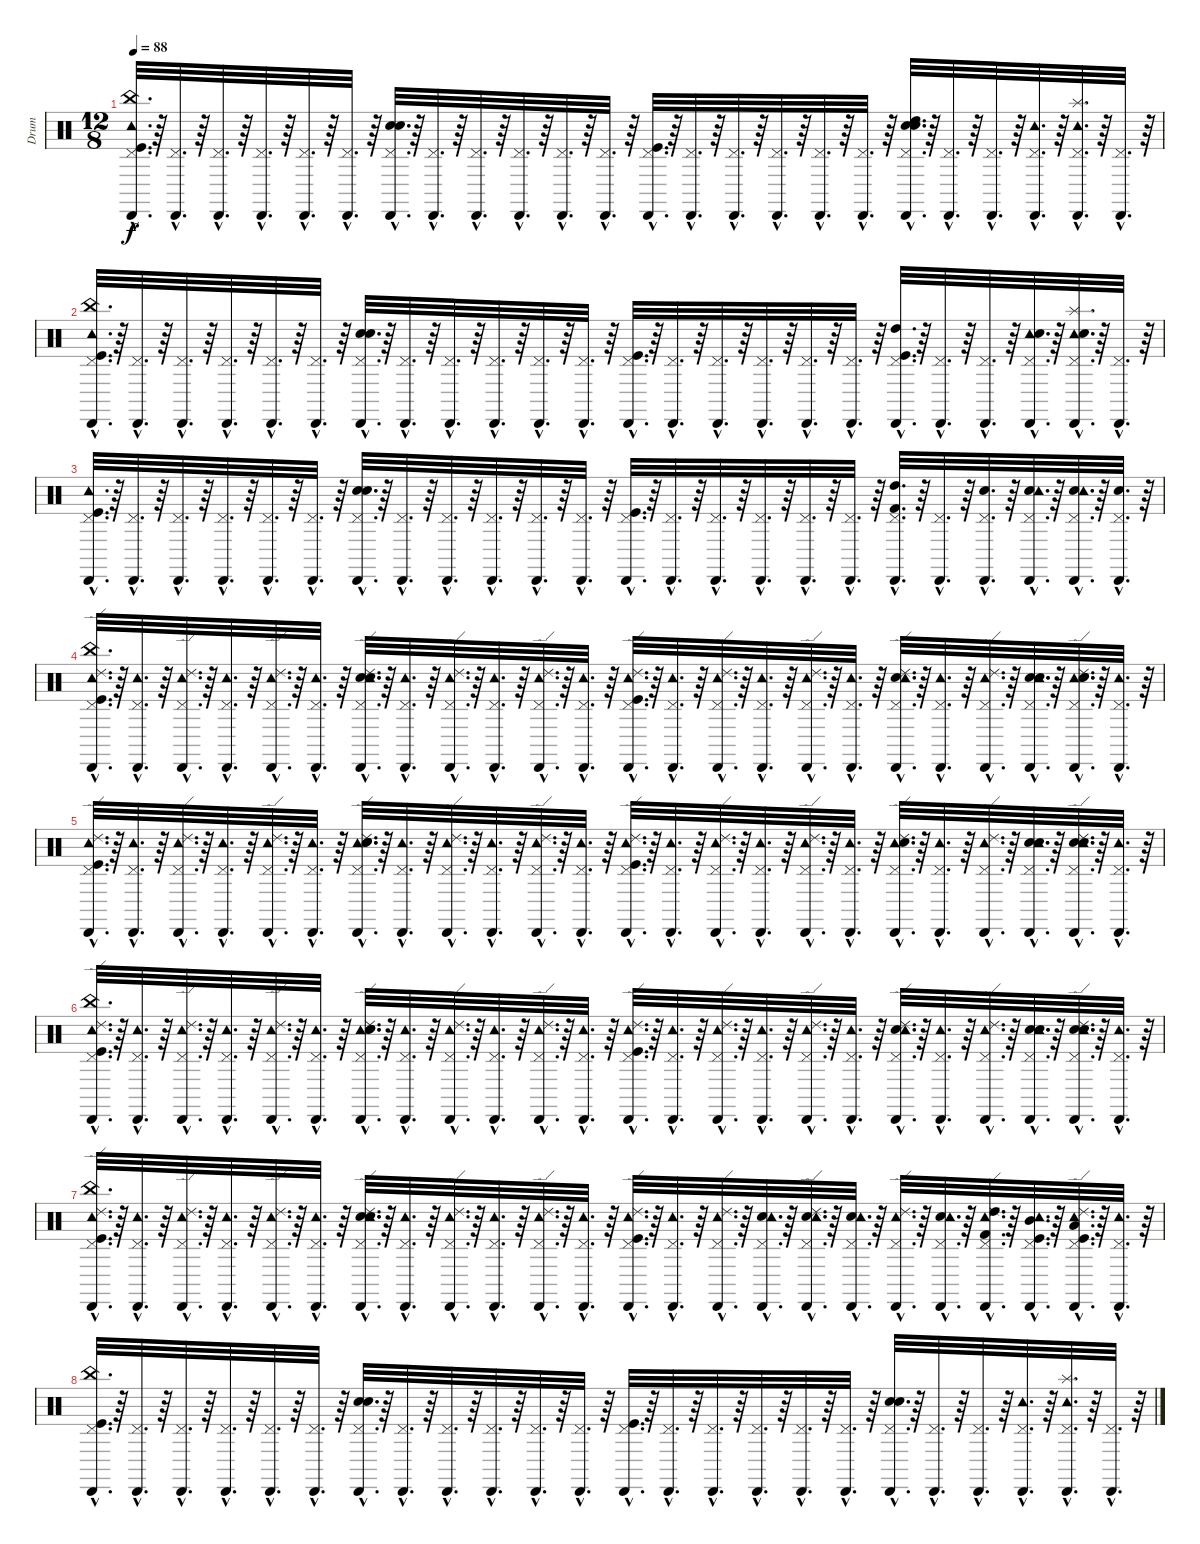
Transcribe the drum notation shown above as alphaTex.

\track ("Drum" "Drum") {instrument percussion}
\staff {score}
\articulation defaults
\ts (12 8)
\tempo 88
\clef neutral
\ks c
("Pedal Hi-Hat (hit)"{hac} "Kick (hit)"{hac} "Cabasa (hit)"{hac} "Tambourine (hit)"{hac} "China (hit)"{hac}).32{d dy f} r.64 ("Cabasa (hit)"{hac} "Pedal Hi-Hat (hit)"{hac}).32{d} r.64 ("Cabasa (hit)"{hac} "Pedal Hi-Hat (hit)"{hac}).32{d} r.64 ("Cabasa (hit)"{hac} "Pedal Hi-Hat (hit)"{hac}).32{d} r.64 ("Pedal Hi-Hat (hit)"{hac} "Cabasa (hit)"{hac}).32{d} r.64 ("Pedal Hi-Hat (hit)"{hac} "Cabasa (hit)"{hac}).32{d} r.64 ("Snare (hit) 2"{hac} "Cabasa (hit)"{hac} "Electric Snare (hit)"{hac} "Pedal Hi-Hat (hit)"{hac}).32{d} r.64 ("Cabasa (hit)"{hac} "Pedal Hi-Hat (hit)"{hac}).32{d} r.64 ("Pedal Hi-Hat (hit)"{hac} "Cabasa (hit)"{hac}).32{d} r.64 ("Pedal Hi-Hat (hit)"{hac} "Cabasa (hit)"{hac}).32{d} r.64 ("Cabasa (hit)"{hac} "Pedal Hi-Hat (hit)"{hac}).32{d} r.64 ("Cabasa (hit)"{hac} "Pedal Hi-Hat (hit)"{hac}).32{d} r.64 ("Kick (hit)"{hac} "Cabasa (hit)"{hac} "Pedal Hi-Hat (hit)"{hac}).32{d} r.64 ("Cabasa (hit)"{hac} "Pedal Hi-Hat (hit)"{hac}).32{d} r.64 ("Pedal Hi-Hat (hit)"{hac} "Cabasa (hit)"{hac}).32{d} r.64 ("Cabasa (hit)"{hac} "Pedal Hi-Hat (hit)"{hac}).32{d} r.64 ("Cabasa (hit)"{hac} "Pedal Hi-Hat (hit)"{hac}).32{d} r.64 ("Cabasa (hit)"{hac} "Pedal Hi-Hat (hit)"{hac}).32{d} r.64 ("Electric Snare (hit)"{hac} "Snare (hit) 2"{hac} "High Tom (hit)"{hac} "Pedal Hi-Hat (hit)"{hac} "Cabasa (hit)"{hac}).32{d} r.64 ("Pedal Hi-Hat (hit)"{hac} "Cabasa (hit)"{hac}).32{d} r.64 ("Cabasa (hit)"{hac} "Pedal Hi-Hat (hit)"{hac}).32{d} r.64 ("Cabasa (hit)"{hac} "Pedal Hi-Hat (hit)"{hac} "Tambourine (hit)"{hac}).32{d} r.64 ("Splash (hit)"{hac} "Tambourine (hit)"{hac} "Cabasa (hit)"{hac} "Pedal Hi-Hat (hit)"{hac}).32{d} r.64 ("Cabasa (hit)"{hac} "Pedal Hi-Hat (hit)"{hac}).32{d} r.64 |
("China (hit)"{hac} "Cabasa (hit)"{hac} "Kick (hit)"{hac} "Pedal Hi-Hat (hit)"{hac} "Tambourine (hit)"{hac}).32{d} r.64 ("Cabasa (hit)"{hac} "Pedal Hi-Hat (hit)"{hac}).32{d} r.64 ("Pedal Hi-Hat (hit)"{hac} "Cabasa (hit)"{hac}).32{d} r.64 ("Pedal Hi-Hat (hit)"{hac} "Cabasa (hit)"{hac}).32{d} r.64 ("Cabasa (hit)"{hac} "Pedal Hi-Hat (hit)"{hac}).32{d} r.64 ("Pedal Hi-Hat (hit)"{hac} "Cabasa (hit)"{hac}).32{d} r.64 ("Pedal Hi-Hat (hit)"{hac} "Snare (hit) 2"{hac} "Cabasa (hit)"{hac} "Electric Snare (hit)"{hac}).32{d} r.64 ("Cabasa (hit)"{hac} "Pedal Hi-Hat (hit)"{hac}).32{d} r.64 ("Cabasa (hit)"{hac} "Pedal Hi-Hat (hit)"{hac}).32{d} r.64 ("Pedal Hi-Hat (hit)"{hac} "Cabasa (hit)"{hac}).32{d} r.64 ("Cabasa (hit)"{hac} "Pedal Hi-Hat (hit)"{hac}).32{d} r.64 ("Cabasa (hit)"{hac} "Pedal Hi-Hat (hit)"{hac}).32{d} r.64 ("Cabasa (hit)"{hac} "Kick (hit)"{hac} "Pedal Hi-Hat (hit)"{hac}).32{d} r.64 ("Cabasa (hit)"{hac} "Pedal Hi-Hat (hit)"{hac}).32{d} r.64 ("Pedal Hi-Hat (hit)"{hac} "Cabasa (hit)"{hac}).32{d} r.64 ("Pedal Hi-Hat (hit)"{hac} "Cabasa (hit)"{hac}).32{d} r.64 ("Cabasa (hit)"{hac} "Pedal Hi-Hat (hit)"{hac}).32{d} r.64 ("Pedal Hi-Hat (hit)"{hac} "Cabasa (hit)"{hac}).32{d} r.64 ("High Tom (hit)"{hac} "Pedal Hi-Hat (hit)"{hac} "Kick (hit)"{hac} "Cabasa (hit)"{hac}).32{d} r.64 ("Pedal Hi-Hat (hit)"{hac} "Cabasa (hit)"{hac}).32{d} r.64 ("Pedal Hi-Hat (hit)"{hac} "Cabasa (hit)"{hac}).32{d} r.64 ("Tambourine (hit)"{hac} "Snare (hit) 2"{hac} "Pedal Hi-Hat (hit)"{hac} "Cabasa (hit)"{hac}).32{d} r.64 ("Splash (hit)"{hac} "Tambourine (hit)"{hac} "Pedal Hi-Hat (hit)"{hac} "Snare (hit) 2"{hac} "Cabasa (hit)"{hac}).32{d} r.64 ("Pedal Hi-Hat (hit)"{hac} "Cabasa (hit)"{hac}).32{d} r.64 |
("Tambourine (hit)"{hac} "Pedal Hi-Hat (hit)"{hac} "Kick (hit)"{hac} "Cabasa (hit)"{hac}).32{d} r.64 ("Cabasa (hit)"{hac} "Pedal Hi-Hat (hit)"{hac}).32{d} r.64 ("Cabasa (hit)"{hac} "Pedal Hi-Hat (hit)"{hac}).32{d} r.64 ("Cabasa (hit)"{hac} "Pedal Hi-Hat (hit)"{hac}).32{d} r.64 ("Cabasa (hit)"{hac} "Pedal Hi-Hat (hit)"{hac}).32{d} r.64 ("Pedal Hi-Hat (hit)"{hac} "Cabasa (hit)"{hac}).32{d} r.64 ("Electric Snare (hit)"{hac} "Snare (hit) 2"{hac} "Cabasa (hit)"{hac} "Pedal Hi-Hat (hit)"{hac}).32{d} r.64 ("Cabasa (hit)"{hac} "Pedal Hi-Hat (hit)"{hac}).32{d} r.64 ("Cabasa (hit)"{hac} "Pedal Hi-Hat (hit)"{hac}).32{d} r.64 ("Pedal Hi-Hat (hit)"{hac} "Cabasa (hit)"{hac}).32{d} r.64 ("Pedal Hi-Hat (hit)"{hac} "Cabasa (hit)"{hac}).32{d} r.64 ("Cabasa (hit)"{hac} "Pedal Hi-Hat (hit)"{hac}).32{d} r.64 ("Cabasa (hit)"{hac} "Kick (hit)"{hac} "Pedal Hi-Hat (hit)"{hac}).32{d} r.64 ("Cabasa (hit)"{hac} "Pedal Hi-Hat (hit)"{hac}).32{d} r.64 ("Cabasa (hit)"{hac} "Pedal Hi-Hat (hit)"{hac}).32{d} r.64 ("Pedal Hi-Hat (hit)"{hac} "Cabasa (hit)"{hac}).32{d} r.64 ("Pedal Hi-Hat (hit)"{hac} "Cabasa (hit)"{hac}).32{d} r.64 ("Pedal Hi-Hat (hit)"{hac} "Cabasa (hit)"{hac}).32{d} r.64 ("Kick (hit) 2"{hac} "High Tom (hit)"{hac} "Pedal Hi-Hat (hit)"{hac} "Cabasa (hit)"{hac}).32{d} r.64 ("Pedal Hi-Hat (hit)"{hac} "Cabasa (hit)"{hac}).32{d} r.64 ("Snare (hit) 2"{hac} "Pedal Hi-Hat (hit)"{hac} "Cabasa (hit)"{hac}).32{d} r.64 ("Snare (hit) 2"{hac} "Tambourine (hit)"{hac} "Pedal Hi-Hat (hit)"{hac} "Cabasa (hit)"{hac}).32{d} r.64 ("Snare (hit) 2"{hac} "Pedal Hi-Hat (hit)"{hac} "Cabasa (hit)"{hac} "Tambourine (hit)"{hac}).32{d} r.64 ("Snare (hit) 2"{hac} "Pedal Hi-Hat (hit)"{hac} "Cabasa (hit)"{hac}).32{d} r.64 |
("China (hit)"{hac} "Kick (hit)"{hac} "Cabasa (hit)"{hac} "Tambourine (hit)"{hac} "Pedal Hi-Hat (hit)"{hac} "Ride (edge) 2"{hac}).32{d} r.64 ("Tambourine (hit)"{hac} "Cabasa (hit)"{hac} "Pedal Hi-Hat (hit)"{hac}).32{d} r.64 ("Cabasa (hit)"{hac} "Ride (edge) 2"{hac} "Pedal Hi-Hat (hit)"{hac} "Tambourine (hit)"{hac}).32{d} r.64 ("Cabasa (hit)"{hac} "Tambourine (hit)"{hac} "Pedal Hi-Hat (hit)"{hac}).32{d} r.64 ("Pedal Hi-Hat (hit)"{hac} "Ride (edge) 2"{hac} "Cabasa (hit)"{hac} "Tambourine (hit)"{hac}).32{d} r.64 ("Tambourine (hit)"{hac} "Pedal Hi-Hat (hit)"{hac} "Cabasa (hit)"{hac}).32{d} r.64 ("Pedal Hi-Hat (hit)"{hac} "Ride (edge) 2"{hac} "Electric Snare (hit)"{hac} "Tambourine (hit)"{hac} "Snare (hit) 2"{hac} "Cabasa (hit)"{hac}).32{d} r.64 ("Tambourine (hit)"{hac} "Cabasa (hit)"{hac} "Pedal Hi-Hat (hit)"{hac}).32{d} r.64 ("Ride (edge) 2"{hac} "Pedal Hi-Hat (hit)"{hac} "Cabasa (hit)"{hac} "Tambourine (hit)"{hac}).32{d} r.64 ("Tambourine (hit)"{hac} "Cabasa (hit)"{hac} "Pedal Hi-Hat (hit)"{hac}).32{d} r.64 ("Pedal Hi-Hat (hit)"{hac} "Ride (edge) 2"{hac} "Cabasa (hit)"{hac} "Tambourine (hit)"{hac}).32{d} r.64 ("Pedal Hi-Hat (hit)"{hac} "Tambourine (hit)"{hac} "Cabasa (hit)"{hac}).32{d} r.64 ("Tambourine (hit)"{hac} "Pedal Hi-Hat (hit)"{hac} "Kick (hit)"{hac} "Ride (edge) 2"{hac} "Cabasa (hit)"{hac}).32{d} r.64 ("Tambourine (hit)"{hac} "Pedal Hi-Hat (hit)"{hac} "Cabasa (hit)"{hac}).32{d} r.64 ("Pedal Hi-Hat (hit)"{hac} "Ride (edge) 2"{hac} "Cabasa (hit)"{hac} "Tambourine (hit)"{hac}).32{d} r.64 ("Pedal Hi-Hat (hit)"{hac} "Cabasa (hit)"{hac} "Tambourine (hit)"{hac}).32{d} r.64 ("Cabasa (hit)"{hac} "Pedal Hi-Hat (hit)"{hac} "Ride (edge) 2"{hac} "Tambourine (hit)"{hac}).32{d} r.64 ("Tambourine (hit)"{hac} "Cabasa (hit)"{hac} "Pedal Hi-Hat (hit)"{hac}).32{d} r.64 ("Snare (hit) 2"{hac} "Tambourine (hit)"{hac} "Pedal Hi-Hat (hit)"{hac} "Cabasa (hit)"{hac} "Ride (edge) 2"{hac}).32{d} r.64 ("Tambourine (hit)"{hac} "Cabasa (hit)"{hac} "Pedal Hi-Hat (hit)"{hac}).32{d} r.64 ("Cabasa (hit)"{hac} "Pedal Hi-Hat (hit)"{hac} "Tambourine (hit)"{hac} "Ride (edge) 2"{hac}).32{d} r.64 ("Pedal Hi-Hat (hit)"{hac} "Cabasa (hit)"{hac} "Snare (hit) 2"{hac} "Tambourine (hit)"{hac} "Electric Snare (hit)"{hac}).32{d} r.64 ("Ride (edge) 2"{hac} "Cabasa (hit)"{hac} "Tambourine (hit)"{hac} "Snare (hit) 2"{hac} "Pedal Hi-Hat (hit)"{hac} "Electric Snare (hit)"{hac}).32{d} r.64 ("Tambourine (hit)"{hac} "Cabasa (hit)"{hac} "Pedal Hi-Hat (hit)"{hac}).32{d} r.64 |
("Ride (edge) 2"{hac} "Pedal Hi-Hat (hit)"{hac} "Tambourine (hit)"{hac} "Cabasa (hit)"{hac} "Kick (hit)"{hac}).32{d} r.64 ("Pedal Hi-Hat (hit)"{hac} "Cabasa (hit)"{hac} "Tambourine (hit)"{hac}).32{d} r.64 ("Tambourine (hit)"{hac} "Pedal Hi-Hat (hit)"{hac} "Cabasa (hit)"{hac} "Ride (edge) 2"{hac}).32{d} r.64 ("Cabasa (hit)"{hac} "Pedal Hi-Hat (hit)"{hac} "Tambourine (hit)"{hac}).32{d} r.64 ("Tambourine (hit)"{hac} "Cabasa (hit)"{hac} "Pedal Hi-Hat (hit)"{hac} "Ride (edge) 2"{hac}).32{d} r.64 ("Cabasa (hit)"{hac} "Pedal Hi-Hat (hit)"{hac} "Tambourine (hit)"{hac}).32{d} r.64 ("Tambourine (hit)"{hac} "Snare (hit) 2"{hac} "Cabasa (hit)"{hac} "Ride (edge) 2"{hac} "Electric Snare (hit)"{hac} "Pedal Hi-Hat (hit)"{hac}).32{d} r.64 ("Pedal Hi-Hat (hit)"{hac} "Cabasa (hit)"{hac} "Tambourine (hit)"{hac}).32{d} r.64 ("Tambourine (hit)"{hac} "Cabasa (hit)"{hac} "Pedal Hi-Hat (hit)"{hac} "Ride (edge) 2"{hac}).32{d} r.64 ("Cabasa (hit)"{hac} "Pedal Hi-Hat (hit)"{hac} "Tambourine (hit)"{hac}).32{d} r.64 ("Tambourine (hit)"{hac} "Cabasa (hit)"{hac} "Pedal Hi-Hat (hit)"{hac} "Ride (edge) 2"{hac}).32{d} r.64 ("Cabasa (hit)"{hac} "Tambourine (hit)"{hac} "Pedal Hi-Hat (hit)"{hac}).32{d} r.64 ("Cabasa (hit)"{hac} "Ride (edge) 2"{hac} "Kick (hit)"{hac} "Tambourine (hit)"{hac} "Pedal Hi-Hat (hit)"{hac}).32{d} r.64 ("Tambourine (hit)"{hac} "Cabasa (hit)"{hac} "Pedal Hi-Hat (hit)"{hac}).32{d} r.64 ("Pedal Hi-Hat (hit)"{hac} "Cabasa (hit)"{hac} "Tambourine (hit)"{hac} "Ride (edge) 2"{hac}).32{d} r.64 ("Cabasa (hit)"{hac} "Pedal Hi-Hat (hit)"{hac} "Tambourine (hit)"{hac}).32{d} r.64 ("Cabasa (hit)"{hac} "Pedal Hi-Hat (hit)"{hac} "Tambourine (hit)"{hac} "Ride (edge) 2"{hac}).32{d} r.64 ("Pedal Hi-Hat (hit)"{hac} "Cabasa (hit)"{hac} "Tambourine (hit)"{hac}).32{d} r.64 ("Ride (edge) 2"{hac} "Cabasa (hit)"{hac} "Pedal Hi-Hat (hit)"{hac} "Tambourine (hit)"{hac} "Snare (hit) 2"{hac}).32{d} r.64 ("Pedal Hi-Hat (hit)"{hac} "Cabasa (hit)"{hac} "Tambourine (hit)"{hac}).32{d} r.64 ("Cabasa (hit)"{hac} "Pedal Hi-Hat (hit)"{hac} "Ride (edge) 2"{hac} "Tambourine (hit)"{hac}).32{d} r.64 ("Electric Snare (hit)"{hac} "Tambourine (hit)"{hac} "Snare (hit) 2"{hac} "Cabasa (hit)"{hac} "Pedal Hi-Hat (hit)"{hac}).32{d} r.64 ("Electric Snare (hit)"{hac} "Ride (edge) 2"{hac} "Tambourine (hit)"{hac} "Pedal Hi-Hat (hit)"{hac} "Snare (hit) 2"{hac} "Cabasa (hit)"{hac}).32{d} r.64 ("Pedal Hi-Hat (hit)"{hac} "Cabasa (hit)"{hac} "Tambourine (hit)"{hac}).32{d} r.64 |
("Pedal Hi-Hat (hit)"{hac} "Ride (edge) 2"{hac} "China (hit)"{hac} "Cabasa (hit)"{hac} "Kick (hit)"{hac} "Tambourine (hit)"{hac}).32{d} r.64 ("Tambourine (hit)"{hac} "Cabasa (hit)"{hac} "Pedal Hi-Hat (hit)"{hac}).32{d} r.64 ("Pedal Hi-Hat (hit)"{hac} "Tambourine (hit)"{hac} "Cabasa (hit)"{hac} "Ride (edge) 2"{hac}).32{d} r.64 ("Cabasa (hit)"{hac} "Tambourine (hit)"{hac} "Pedal Hi-Hat (hit)"{hac}).32{d} r.64 ("Ride (edge) 2"{hac} "Pedal Hi-Hat (hit)"{hac} "Cabasa (hit)"{hac} "Tambourine (hit)"{hac}).32{d} r.64 ("Tambourine (hit)"{hac} "Pedal Hi-Hat (hit)"{hac} "Cabasa (hit)"{hac}).32{d} r.64 ("Tambourine (hit)"{hac} "Electric Snare (hit)"{hac} "Cabasa (hit)"{hac} "Pedal Hi-Hat (hit)"{hac} "Snare (hit) 2"{hac} "Ride (edge) 2"{hac}).32{d} r.64 ("Tambourine (hit)"{hac} "Cabasa (hit)"{hac} "Pedal Hi-Hat (hit)"{hac}).32{d} r.64 ("Tambourine (hit)"{hac} "Cabasa (hit)"{hac} "Pedal Hi-Hat (hit)"{hac} "Ride (edge) 2"{hac}).32{d} r.64 ("Cabasa (hit)"{hac} "Tambourine (hit)"{hac} "Pedal Hi-Hat (hit)"{hac}).32{d} r.64 ("Ride (edge) 2"{hac} "Tambourine (hit)"{hac} "Pedal Hi-Hat (hit)"{hac} "Cabasa (hit)"{hac}).32{d} r.64 ("Pedal Hi-Hat (hit)"{hac} "Tambourine (hit)"{hac} "Cabasa (hit)"{hac}).32{d} r.64 ("Cabasa (hit)"{hac} "Kick (hit)"{hac} "Tambourine (hit)"{hac} "Pedal Hi-Hat (hit)"{hac} "Ride (edge) 2"{hac}).32{d} r.64 ("Pedal Hi-Hat (hit)"{hac} "Tambourine (hit)"{hac} "Cabasa (hit)"{hac}).32{d} r.64 ("Cabasa (hit)"{hac} "Tambourine (hit)"{hac} "Pedal Hi-Hat (hit)"{hac} "Ride (edge) 2"{hac}).32{d} r.64 ("Tambourine (hit)"{hac} "Cabasa (hit)"{hac} "Pedal Hi-Hat (hit)"{hac}).32{d} r.64 ("Cabasa (hit)"{hac} "Ride (edge) 2"{hac} "Pedal Hi-Hat (hit)"{hac} "Tambourine (hit)"{hac}).32{d} r.64 ("Pedal Hi-Hat (hit)"{hac} "Cabasa (hit)"{hac} "Tambourine (hit)"{hac}).32{d} r.64 ("Cabasa (hit)"{hac} "Ride (edge) 2"{hac} "Snare (hit) 2"{hac} "Pedal Hi-Hat (hit)"{hac} "Tambourine (hit)"{hac}).32{d} r.64 ("Tambourine (hit)"{hac} "Pedal Hi-Hat (hit)"{hac} "Cabasa (hit)"{hac}).32{d} r.64 ("Tambourine (hit)"{hac} "Pedal Hi-Hat (hit)"{hac} "Ride (edge) 2"{hac} "Cabasa (hit)"{hac}).32{d} r.64 ("Cabasa (hit)"{hac} "Pedal Hi-Hat (hit)"{hac} "Snare (hit) 2"{hac} "Electric Snare (hit)"{hac} "Tambourine (hit)"{hac}).32{d} r.64 ("Electric Snare (hit)"{hac} "Tambourine (hit)"{hac} "Ride (edge) 2"{hac} "Cabasa (hit)"{hac} "Pedal Hi-Hat (hit)"{hac} "Snare (hit) 2"{hac}).32{d} r.64 ("Cabasa (hit)"{hac} "Pedal Hi-Hat (hit)"{hac} "Tambourine (hit)"{hac}).32{d} r.64 |
("Tambourine (hit)"{hac} "Kick (hit)"{hac} "Cabasa (hit)"{hac} "China (hit)"{hac} "Ride (edge) 2"{hac} "Pedal Hi-Hat (hit)"{hac}).32{d} r.64 ("Pedal Hi-Hat (hit)"{hac} "Cabasa (hit)"{hac} "Tambourine (hit)"{hac}).32{d} r.64 ("Ride (edge) 2"{hac} "Cabasa (hit)"{hac} "Tambourine (hit)"{hac} "Pedal Hi-Hat (hit)"{hac}).32{d} r.64 ("Pedal Hi-Hat (hit)"{hac} "Tambourine (hit)"{hac} "Cabasa (hit)"{hac}).32{d} r.64 ("Tambourine (hit)"{hac} "Cabasa (hit)"{hac} "Pedal Hi-Hat (hit)"{hac} "Ride (edge) 2"{hac}).32{d} r.64 ("Cabasa (hit)"{hac} "Pedal Hi-Hat (hit)"{hac} "Tambourine (hit)"{hac}).32{d} r.64 ("Ride (edge) 2"{hac} "Snare (hit) 2"{hac} "Pedal Hi-Hat (hit)"{hac} "Cabasa (hit)"{hac} "Electric Snare (hit)"{hac} "Tambourine (hit)"{hac}).32{d} r.64 ("Pedal Hi-Hat (hit)"{hac} "Cabasa (hit)"{hac} "Tambourine (hit)"{hac}).32{d} r.64 ("Ride (edge) 2"{hac} "Pedal Hi-Hat (hit)"{hac} "Cabasa (hit)"{hac} "Tambourine (hit)"{hac}).32{d} r.64 ("Pedal Hi-Hat (hit)"{hac} "Tambourine (hit)"{hac} "Cabasa (hit)"{hac}).32{d} r.64 ("Cabasa (hit)"{hac} "Pedal Hi-Hat (hit)"{hac} "Tambourine (hit)"{hac} "Ride (edge) 2"{hac}).32{d} r.64 ("Cabasa (hit)"{hac} "Tambourine (hit)"{hac} "Pedal Hi-Hat (hit)"{hac}).32{d} r.64 ("Ride (edge) 2"{hac} "Pedal Hi-Hat (hit)"{hac} "Tambourine (hit)"{hac} "Kick (hit)"{hac} "Cabasa (hit)"{hac}).32{d} r.64 ("Cabasa (hit)"{hac} "Tambourine (hit)"{hac} "Pedal Hi-Hat (hit)"{hac}).32{d} r.64 ("Ride (edge) 2"{hac} "Pedal Hi-Hat (hit)"{hac} "Tambourine (hit)"{hac} "Cabasa (hit)"{hac}).32{d} r.64 ("Snare (hit) 2"{hac} "Pedal Hi-Hat (hit)"{hac} "Cabasa (hit)"{hac} "Tambourine (hit)"{hac}).32{d} r.64 ("Electric Snare (hit)"{hac} "Tambourine (hit)"{hac} "Pedal Hi-Hat (hit)"{hac} "Ride (edge) 2"{hac} "Cabasa (hit)"{hac}).32{d} r.64 ("Snare (hit) 2"{hac} "Tambourine (hit)"{hac} "Cabasa (hit)"{hac} "Pedal Hi-Hat (hit)"{hac}).32{d} r.64 ("Tambourine (hit)"{hac} "Pedal Hi-Hat (hit)"{hac} "Ride (edge) 2"{hac} "Cabasa (hit)"{hac}).32{d} r.64 ("Electric Snare (hit)"{hac} "Cabasa (hit)"{hac} "Pedal Hi-Hat (hit)"{hac} "Tambourine (hit)"{hac}).32{d} r.64 ("Kick (hit) 2"{hac} "High Tom (hit)"{hac} "Cabasa (hit)"{hac} "Ride (edge) 2"{hac} "Pedal Hi-Hat (hit)"{hac} "Tambourine (hit)"{hac}).32{d} r.64 ("Kick (hit)"{hac} "Mid Tom (hit)"{hac} "Tambourine (hit)"{hac} "Pedal Hi-Hat (hit)"{hac} "Cabasa (hit)"{hac}).32{d} r.64 ("Kick (hit)"{hac} "Low Tom (hit)"{hac} "Pedal Hi-Hat (hit)"{hac} "Cabasa (hit)"{hac} "Ride (edge) 2"{hac} "Tambourine (hit)"{hac}).32{d} r.64 ("Tambourine (hit)"{hac} "Pedal Hi-Hat (hit)"{hac} "Cabasa (hit)"{hac}).32{d} r.64 |
("Kick (hit)"{hac} "Cabasa (hit)"{hac} "China (hit)"{hac} "Pedal Hi-Hat (hit)"{hac}).32{d} r.64 ("Cabasa (hit)"{hac} "Pedal Hi-Hat (hit)"{hac}).32{d} r.64 ("Cabasa (hit)"{hac} "Pedal Hi-Hat (hit)"{hac}).32{d} r.64 ("Cabasa (hit)"{hac} "Pedal Hi-Hat (hit)"{hac}).32{d} r.64 ("Cabasa (hit)"{hac} "Pedal Hi-Hat (hit)"{hac}).32{d} r.64 ("Cabasa (hit)"{hac} "Pedal Hi-Hat (hit)"{hac}).32{d} r.64 ("Snare (hit) 2"{hac} "Electric Snare (hit)"{hac} "Cabasa (hit)"{hac} "Pedal Hi-Hat (hit)"{hac}).32{d} r.64 ("Pedal Hi-Hat (hit)"{hac} "Cabasa (hit)"{hac}).32{d} r.64 ("Pedal Hi-Hat (hit)"{hac} "Cabasa (hit)"{hac}).32{d} r.64 ("Pedal Hi-Hat (hit)"{hac} "Cabasa (hit)"{hac}).32{d} r.64 ("Pedal Hi-Hat (hit)"{hac} "Cabasa (hit)"{hac}).32{d} r.64 ("Cabasa (hit)"{hac} "Pedal Hi-Hat (hit)"{hac}).32{d} r.64 ("Kick (hit)"{hac} "Cabasa (hit)"{hac} "Pedal Hi-Hat (hit)"{hac}).32{d} r.64 ("Cabasa (hit)"{hac} "Pedal Hi-Hat (hit)"{hac}).32{d} r.64 ("Cabasa (hit)"{hac} "Pedal Hi-Hat (hit)"{hac}).32{d} r.64 ("Pedal Hi-Hat (hit)"{hac} "Cabasa (hit)"{hac}).32{d} r.64 ("Pedal Hi-Hat (hit)"{hac} "Cabasa (hit)"{hac}).32{d} r.64 ("Pedal Hi-Hat (hit)"{hac} "Cabasa (hit)"{hac}).32{d} r.64 ("Pedal Hi-Hat (hit)"{hac} "Electric Snare (hit)"{hac} "Snare (hit) 2"{hac} "Cabasa (hit)"{hac}).32{d} r.64 ("Pedal Hi-Hat (hit)"{hac} "Cabasa (hit)"{hac}).32{d} r.64 ("Cabasa (hit)"{hac} "Pedal Hi-Hat (hit)"{hac}).32{d} r.64 ("Pedal Hi-Hat (hit)"{hac} "Cabasa (hit)"{hac} "Tambourine (hit)"{hac}).32{d} r.64 ("Splash (hit)"{hac} "Tambourine (hit)"{hac} "Pedal Hi-Hat (hit)"{hac} "Cabasa (hit)"{hac}).32{d} r.64 ("Cabasa (hit)"{hac} "Pedal Hi-Hat (hit)"{hac}).32{d} r.64
